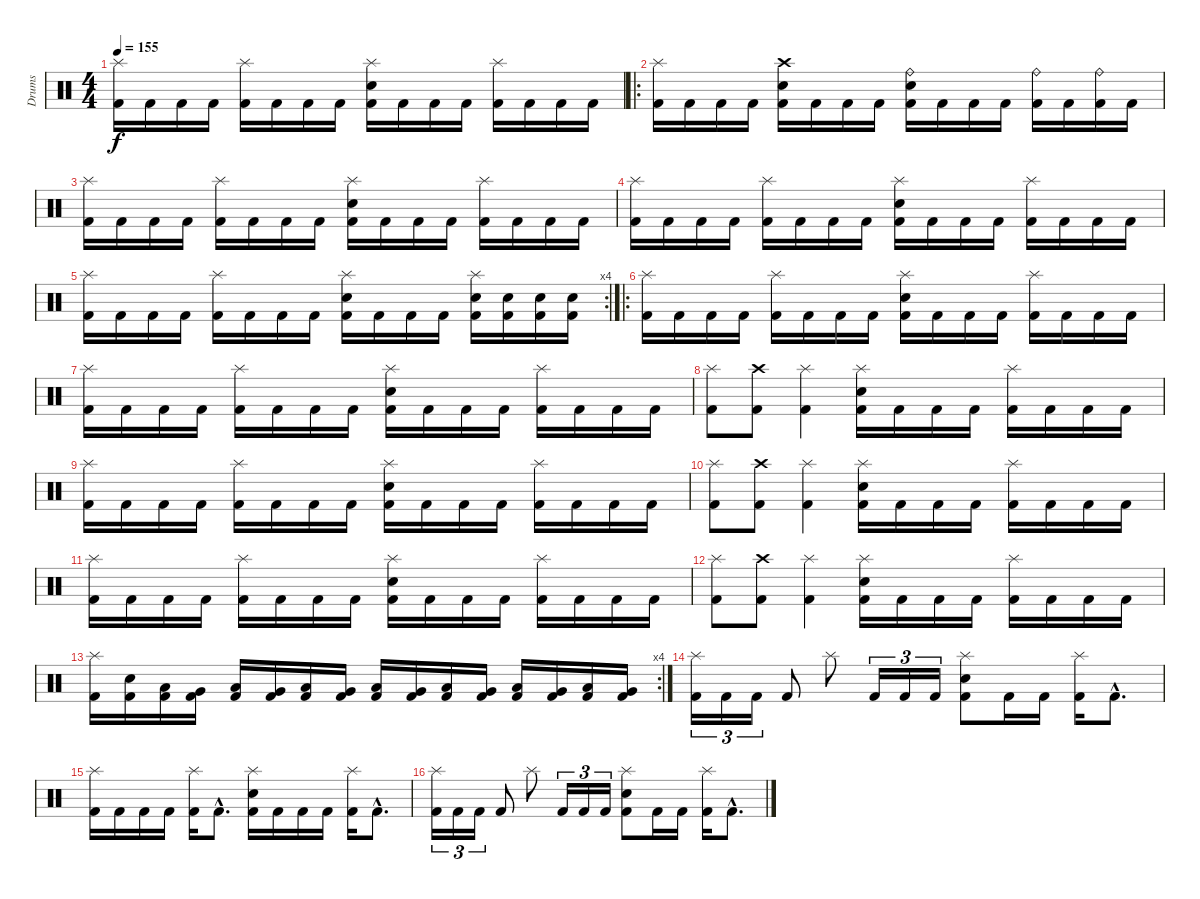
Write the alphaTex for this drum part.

\track ("Drums" "Drums") {instrument percussion}
\staff {score}
\articulation defaults
\ts (4 4)
\tempo 155
\clef neutral
\ks c
("Splash (hit)" "Kick (hit) 2").16{dy f} "Kick (hit) 2".16 "Kick (hit) 2".16 "Kick (hit) 2".16 ("Splash (hit)" "Kick (hit) 2").16 "Kick (hit) 2".16 "Kick (hit) 2".16 "Kick (hit) 2".16 ("Splash (hit)" "Electric Snare (hit)" "Kick (hit) 2").16 "Kick (hit) 2".16 "Kick (hit) 2".16 "Kick (hit) 2".16 ("Splash (hit)" "Kick (hit) 2").16 "Kick (hit) 2".16 "Kick (hit) 2".16 "Kick (hit) 2".16 |
\ro
("Splash (hit)" "Kick (hit) 2").16 "Kick (hit) 2".16 "Kick (hit) 2".16 "Kick (hit) 2".16 ("Crash high (hit)" "Electric Snare (hit)" "Kick (hit) 2").16 "Kick (hit) 2".16 "Kick (hit) 2".16 "Kick (hit) 2".16 ("Ride (bell)" "Electric Snare (hit)" "Kick (hit) 2").16 "Kick (hit) 2".16 "Kick (hit) 2".16 "Kick (hit) 2".16 ("Ride (bell)" "Kick (hit) 2").16 "Kick (hit) 2".16 ("Ride (bell)" "Kick (hit) 2").16 "Kick (hit) 2".16 |
("Splash (hit)" "Kick (hit) 2").16 "Kick (hit) 2".16 "Kick (hit) 2".16 "Kick (hit) 2".16 ("Splash (hit)" "Kick (hit) 2").16 "Kick (hit) 2".16 "Kick (hit) 2".16 "Kick (hit) 2".16 ("Splash (hit)" "Electric Snare (hit)" "Kick (hit) 2").16 "Kick (hit) 2".16 "Kick (hit) 2".16 "Kick (hit) 2".16 ("Splash (hit)" "Kick (hit) 2").16 "Kick (hit) 2".16 "Kick (hit) 2".16 "Kick (hit) 2".16 |
("Splash (hit)" "Kick (hit) 2").16 "Kick (hit) 2".16 "Kick (hit) 2".16 "Kick (hit) 2".16 ("Splash (hit)" "Kick (hit) 2").16 "Kick (hit) 2".16 "Kick (hit) 2".16 "Kick (hit) 2".16 ("Splash (hit)" "Electric Snare (hit)" "Kick (hit) 2").16 "Kick (hit) 2".16 "Kick (hit) 2".16 "Kick (hit) 2".16 ("Splash (hit)" "Kick (hit) 2").16 "Kick (hit) 2".16 "Kick (hit) 2".16 "Kick (hit) 2".16 |
\rc 4
("Splash (hit)" "Kick (hit) 2").16 "Kick (hit) 2".16 "Kick (hit) 2".16 "Kick (hit) 2".16 ("Splash (hit)" "Kick (hit) 2").16 "Kick (hit) 2".16 "Kick (hit) 2".16 "Kick (hit) 2".16 ("Splash (hit)" "Electric Snare (hit)" "Kick (hit) 2").16 "Kick (hit) 2".16 "Kick (hit) 2".16 "Kick (hit) 2".16 ("Splash (hit)" "Electric Snare (hit)" "Kick (hit) 2").16 ("Electric Snare (hit)" "Kick (hit) 2").16 ("Electric Snare (hit)" "Kick (hit) 2").16 ("Electric Snare (hit)" "Kick (hit) 2").16 |
\ro
("Splash (hit)" "Kick (hit) 2").16{balance 8} "Kick (hit) 2".16 "Kick (hit) 2".16 "Kick (hit) 2".16 ("Splash (hit)" "Kick (hit) 2").16 "Kick (hit) 2".16 "Kick (hit) 2".16 "Kick (hit) 2".16 ("Splash (hit)" "Electric Snare (hit)" "Kick (hit) 2").16 "Kick (hit) 2".16 "Kick (hit) 2".16 "Kick (hit) 2".16 ("Splash (hit)" "Kick (hit) 2").16 "Kick (hit) 2".16 "Kick (hit) 2".16 "Kick (hit) 2".16 |
("Splash (hit)" "Kick (hit) 2").16 "Kick (hit) 2".16 "Kick (hit) 2".16 "Kick (hit) 2".16 ("Splash (hit)" "Kick (hit) 2").16 "Kick (hit) 2".16 "Kick (hit) 2".16 "Kick (hit) 2".16 ("Splash (hit)" "Electric Snare (hit)" "Kick (hit) 2").16 "Kick (hit) 2".16 "Kick (hit) 2".16 "Kick (hit) 2".16 ("Splash (hit)" "Kick (hit) 2").16 "Kick (hit) 2".16 "Kick (hit) 2".16 "Kick (hit) 2".16 |
("Splash (hit)" "Kick (hit) 2").8 ("Crash high (hit)" "Kick (hit) 2").8 ("Splash (hit)" "Kick (hit) 2").4 ("Splash (hit)" "Electric Snare (hit)" "Kick (hit) 2").16 "Kick (hit) 2".16 "Kick (hit) 2".16 "Kick (hit) 2".16 ("Splash (hit)" "Kick (hit) 2").16 "Kick (hit) 2".16 "Kick (hit) 2".16 "Kick (hit) 2".16 |
("Splash (hit)" "Kick (hit) 2").16 "Kick (hit) 2".16 "Kick (hit) 2".16 "Kick (hit) 2".16 ("Splash (hit)" "Kick (hit) 2").16 "Kick (hit) 2".16 "Kick (hit) 2".16 "Kick (hit) 2".16 ("Splash (hit)" "Electric Snare (hit)" "Kick (hit) 2").16 "Kick (hit) 2".16 "Kick (hit) 2".16 "Kick (hit) 2".16 ("Splash (hit)" "Kick (hit) 2").16 "Kick (hit) 2".16 "Kick (hit) 2".16 "Kick (hit) 2".16 |
("Splash (hit)" "Kick (hit) 2").8 ("Crash high (hit)" "Kick (hit) 2").8 ("Splash (hit)" "Kick (hit) 2").4 ("Splash (hit)" "Electric Snare (hit)" "Kick (hit) 2").16 "Kick (hit) 2".16 "Kick (hit) 2".16 "Kick (hit) 2".16 ("Splash (hit)" "Kick (hit) 2").16 "Kick (hit) 2".16 "Kick (hit) 2".16 "Kick (hit) 2".16 |
("Splash (hit)" "Kick (hit) 2").16 "Kick (hit) 2".16 "Kick (hit) 2".16 "Kick (hit) 2".16 ("Splash (hit)" "Kick (hit) 2").16 "Kick (hit) 2".16 "Kick (hit) 2".16 "Kick (hit) 2".16 ("Splash (hit)" "Electric Snare (hit)" "Kick (hit) 2").16 "Kick (hit) 2".16 "Kick (hit) 2".16 "Kick (hit) 2".16 ("Splash (hit)" "Kick (hit) 2").16 "Kick (hit) 2".16 "Kick (hit) 2".16 "Kick (hit) 2".16 |
("Splash (hit)" "Kick (hit) 2").8 ("Crash high (hit)" "Kick (hit) 2").8 ("Splash (hit)" "Kick (hit) 2").4 ("Splash (hit)" "Electric Snare (hit)" "Kick (hit) 2").16 "Kick (hit) 2".16 "Kick (hit) 2".16 "Kick (hit) 2".16 ("Splash (hit)" "Kick (hit) 2").16 "Kick (hit) 2".16 "Kick (hit) 2".16 "Kick (hit) 2".16 |
\rc 4
("Splash (hit)" "Kick (hit) 2").16{balance 0} ("Electric Snare (hit)" "Kick (hit) 2").16{balance 16} ("Low Floor Tom (hit)" "Kick (hit) 2").16 ("Very Low Tom (hit)" "Kick (hit) 2").16 ("Low Tom (hit)" "Kick (hit) 2").16 ("Very Low Tom (hit)" "Kick (hit) 2").16 ("Low Floor Tom (hit)" "Kick (hit) 2").16 ("Very Low Tom (hit)" "Kick (hit) 2").16 ("Low Tom (hit)" "Kick (hit) 2").16 ("Very Low Tom (hit)" "Kick (hit) 2").16 ("Low Floor Tom (hit)" "Kick (hit) 2").16 ("Very Low Tom (hit)" "Kick (hit) 2").16 ("Low Tom (hit)" "Kick (hit) 2").16 ("Very Low Tom (hit)" "Kick (hit) 2").16 ("Low Floor Tom (hit)" "Kick (hit) 2").16 ("Very Low Tom (hit)" "Kick (hit) 2").16 |
("Splash (hit)" "Kick (hit) 2").16{tu (3 2) balance 8} "Kick (hit) 2".16{tu (3 2)} "Kick (hit) 2".16{tu (3 2)} "Kick (hit) 2".8 "Splash (hit)".8 "Kick (hit) 2".16{tu (3 2)} "Kick (hit) 2".16{tu (3 2)} "Kick (hit) 2".16{tu (3 2)} ("Splash (hit)" "Electric Snare (hit)" "Kick (hit) 2").8 "Kick (hit) 2".16 "Kick (hit) 2".16 ("Splash (hit)" "Kick (hit) 2").16 "Kick (hit) 2"{hac}.8{d} |
("Splash (hit)" "Kick (hit) 2").16 "Kick (hit) 2".16 "Kick (hit) 2".16 "Kick (hit) 2".16 ("Splash (hit)" "Kick (hit) 2").16 "Kick (hit) 2"{hac}.8{d} ("Splash (hit)" "Electric Snare (hit)" "Kick (hit) 2").16 "Kick (hit) 2".16 "Kick (hit) 2".16 "Kick (hit) 2".16 ("Splash (hit)" "Kick (hit) 2").16 "Kick (hit) 2"{hac}.8{d} |
("Splash (hit)" "Kick (hit) 2").16{tu (3 2)} "Kick (hit) 2".16{tu (3 2)} "Kick (hit) 2".16{tu (3 2)} "Kick (hit) 2".8 "Splash (hit)".8 "Kick (hit) 2".16{tu (3 2)} "Kick (hit) 2".16{tu (3 2)} "Kick (hit) 2".16{tu (3 2)} ("Splash (hit)" "Electric Snare (hit)" "Kick (hit) 2").8 "Kick (hit) 2".16 "Kick (hit) 2".16 ("Splash (hit)" "Kick (hit) 2").16 "Kick (hit) 2"{hac}.8{d}
